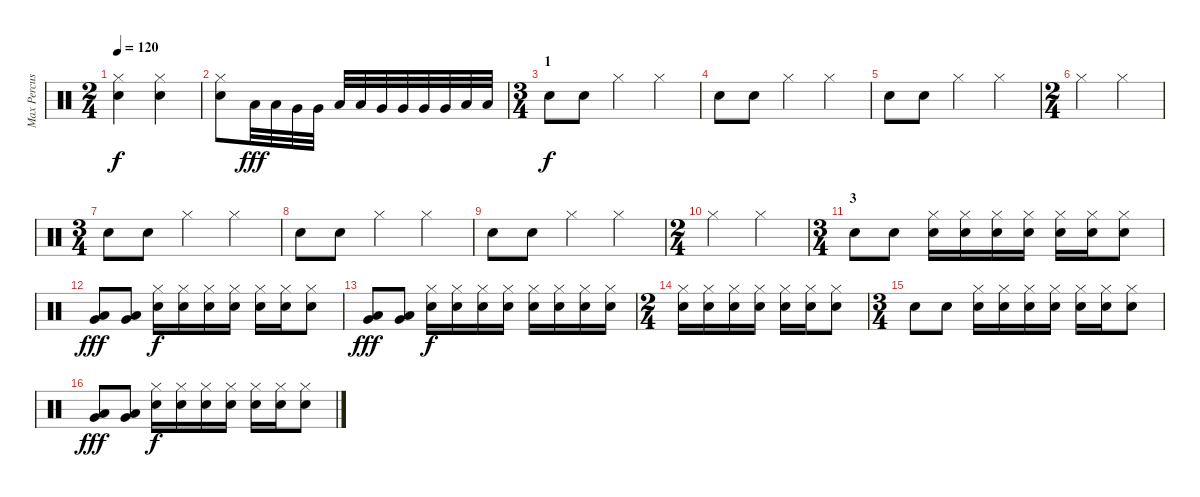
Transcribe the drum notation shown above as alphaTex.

\track ("Max Percussion" "Max Percus") {instrument percussion}
\staff {score}
\articulation defaults
\ts (2 4)
\tempo 120
\clef neutral
\ks c
("Hi-Hat (closed)" "Snare (hit) 2").4{dy f} ("Hi-Hat (closed)" "Snare (hit) 2").4 |
("Hi-Hat (closed)" "Snare (hit) 2").8 "Low Tom (hit)".32{dy fff} "Low Tom (hit)".32 "Very Low Tom (hit)".32 "Very Low Tom (hit)".32 "Low Tom (hit)".32 "Low Tom (hit)".32 "Very Low Tom (hit)".32 "Very Low Tom (hit)".32 "Very Low Tom (hit)".32 "Very Low Tom (hit)".32 "Low Floor Tom (hit)".32 "Low Floor Tom (hit)".32 |
\ts (3 4)
\section ("" "1")
"Snare (hit) 2".8{dy f} "Snare (hit) 2".8 "Hi-Hat (closed)".4 "Hi-Hat (closed)".4 |
"Snare (hit) 2".8 "Snare (hit) 2".8 "Hi-Hat (closed)".4 "Hi-Hat (closed)".4 |
"Snare (hit) 2".8 "Snare (hit) 2".8 "Hi-Hat (closed)".4 "Hi-Hat (closed)".4 |
\ts (2 4)
"Hi-Hat (closed)".4 "Hi-Hat (closed)".4 |
\ts (3 4)
"Snare (hit) 2".8 "Snare (hit) 2".8 "Hi-Hat (closed)".4 "Hi-Hat (closed)".4 |
"Snare (hit) 2".8 "Snare (hit) 2".8 "Hi-Hat (closed)".4 "Hi-Hat (closed)".4 |
"Snare (hit) 2".8 "Snare (hit) 2".8 "Hi-Hat (closed)".4 "Hi-Hat (closed)".4 |
\ts (2 4)
"Hi-Hat (closed)".4 "Hi-Hat (closed)".4 |
\ts (3 4)
\section ("" "3")
"Snare (hit) 2".8 "Snare (hit) 2".8 ("Hi-Hat (closed)" "Snare (hit) 2").16 ("Hi-Hat (closed)" "Snare (hit) 2").16 ("Hi-Hat (closed)" "Snare (hit) 2").16 ("Hi-Hat (closed)" "Snare (hit) 2").16 ("Hi-Hat (closed)" "Snare (hit) 2").16 ("Hi-Hat (closed)" "Snare (hit) 2").16 ("Hi-Hat (closed)" "Snare (hit) 2").8 |
("Low Tom (hit)" "Very Low Tom (hit)").8{dy fff} ("Low Tom (hit)" "Very Low Tom (hit)").8 ("Hi-Hat (closed)" "Snare (hit) 2").16{dy f} ("Hi-Hat (closed)" "Snare (hit) 2").16 ("Hi-Hat (closed)" "Snare (hit) 2").16 ("Hi-Hat (closed)" "Snare (hit) 2").16 ("Hi-Hat (closed)" "Snare (hit) 2").16 ("Hi-Hat (closed)" "Snare (hit) 2").16 ("Hi-Hat (closed)" "Snare (hit) 2").8 |
("Very Low Tom (hit)" "Low Floor Tom (hit)").8{dy fff} ("Very Low Tom (hit)" "Low Floor Tom (hit)").8 ("Hi-Hat (closed)" "Snare (hit) 2").16{dy f} ("Hi-Hat (closed)" "Snare (hit) 2").16 ("Hi-Hat (closed)" "Snare (hit) 2").16 ("Hi-Hat (closed)" "Snare (hit) 2").16 ("Hi-Hat (closed)" "Snare (hit) 2").16 ("Hi-Hat (closed)" "Snare (hit) 2").16 ("Hi-Hat (closed)" "Snare (hit) 2").16 ("Hi-Hat (closed)" "Snare (hit) 2").16 |
\ts (2 4)
("Hi-Hat (closed)" "Snare (hit) 2").16 ("Hi-Hat (closed)" "Snare (hit) 2").16 ("Hi-Hat (closed)" "Snare (hit) 2").16 ("Hi-Hat (closed)" "Snare (hit) 2").16 ("Hi-Hat (closed)" "Snare (hit) 2").16 ("Hi-Hat (closed)" "Snare (hit) 2").16 ("Hi-Hat (closed)" "Snare (hit) 2").8 |
\ts (3 4)
"Snare (hit) 2".8 "Snare (hit) 2".8 ("Hi-Hat (closed)" "Snare (hit) 2").16 ("Hi-Hat (closed)" "Snare (hit) 2").16 ("Hi-Hat (closed)" "Snare (hit) 2").16 ("Hi-Hat (closed)" "Snare (hit) 2").16 ("Hi-Hat (closed)" "Snare (hit) 2").16 ("Hi-Hat (closed)" "Snare (hit) 2").16 ("Hi-Hat (closed)" "Snare (hit) 2").8 |
("Low Tom (hit)" "Very Low Tom (hit)").8{dy fff} ("Low Tom (hit)" "Very Low Tom (hit)").8 ("Hi-Hat (closed)" "Snare (hit) 2").16{dy f} ("Hi-Hat (closed)" "Snare (hit) 2").16 ("Hi-Hat (closed)" "Snare (hit) 2").16 ("Hi-Hat (closed)" "Snare (hit) 2").16 ("Hi-Hat (closed)" "Snare (hit) 2").16 ("Hi-Hat (closed)" "Snare (hit) 2").16 ("Hi-Hat (closed)" "Snare (hit) 2").8
